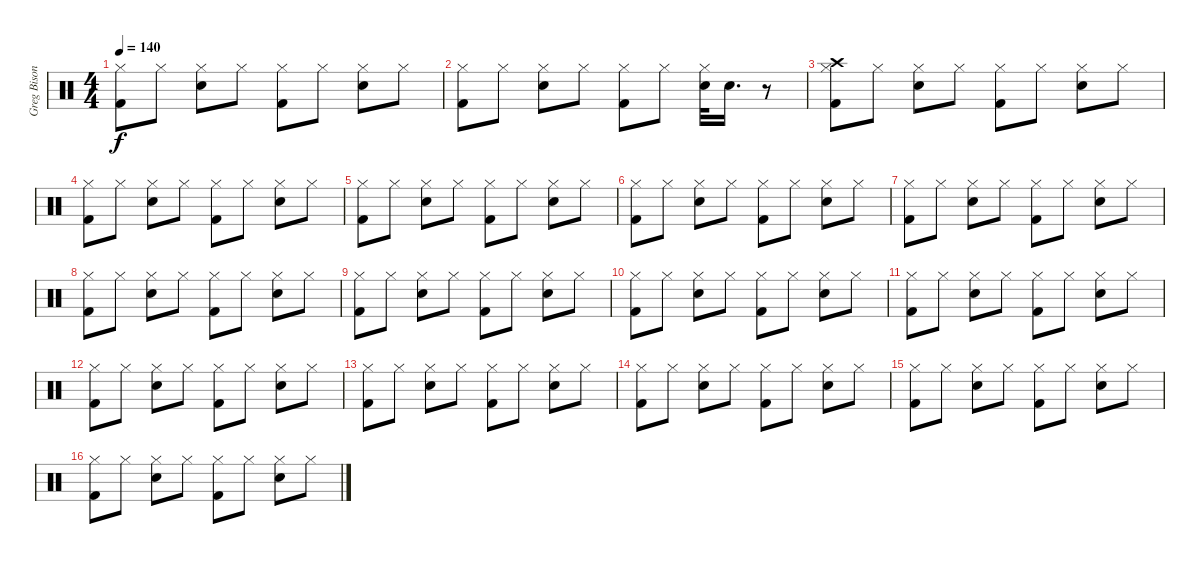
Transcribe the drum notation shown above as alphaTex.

\track ("Greg Bisonette" "Greg Bison") {instrument percussion}
\staff {score}
\articulation defaults
\ts (4 4)
\tempo 140
\clef neutral
\ks c
("Hi-Hat (closed)" "Kick (hit) 2").8{dy f} "Hi-Hat (closed)".8 ("Hi-Hat (closed)" "Electric Snare (hit)").8 "Hi-Hat (closed)".8 ("Hi-Hat (closed)" "Kick (hit) 2").8 "Hi-Hat (closed)".8 ("Hi-Hat (closed)" "Electric Snare (hit)").8 "Hi-Hat (closed)".8 |
("Hi-Hat (closed)" "Kick (hit) 2").8 "Hi-Hat (closed)".8 ("Hi-Hat (closed)" "Electric Snare (hit)").8 "Hi-Hat (closed)".8 ("Hi-Hat (closed)" "Kick (hit) 2").8 "Hi-Hat (closed)".8 ("Hi-Hat (closed)" "Electric Snare (hit)").32 "Electric Snare (hit)".16{d} r.8 |
("Hi-Hat (closed)" "Crash high (hit)" "Kick (hit) 2").8 "Hi-Hat (closed)".8 ("Hi-Hat (closed)" "Electric Snare (hit)").8 "Hi-Hat (closed)".8 ("Hi-Hat (closed)" "Kick (hit) 2").8 "Hi-Hat (closed)".8 ("Hi-Hat (closed)" "Electric Snare (hit)").8 "Hi-Hat (closed)".8 |
("Hi-Hat (closed)" "Kick (hit) 2").8 "Hi-Hat (closed)".8 ("Hi-Hat (closed)" "Electric Snare (hit)").8 "Hi-Hat (closed)".8 ("Hi-Hat (closed)" "Kick (hit) 2").8 "Hi-Hat (closed)".8 ("Hi-Hat (closed)" "Electric Snare (hit)").8 "Hi-Hat (closed)".8 |
("Hi-Hat (closed)" "Kick (hit) 2").8 "Hi-Hat (closed)".8 ("Hi-Hat (closed)" "Electric Snare (hit)").8 "Hi-Hat (closed)".8 ("Hi-Hat (closed)" "Kick (hit) 2").8 "Hi-Hat (closed)".8 ("Hi-Hat (closed)" "Electric Snare (hit)").8 "Hi-Hat (closed)".8 |
("Hi-Hat (closed)" "Kick (hit) 2").8 "Hi-Hat (closed)".8 ("Hi-Hat (closed)" "Electric Snare (hit)").8 "Hi-Hat (closed)".8 ("Hi-Hat (closed)" "Kick (hit) 2").8 "Hi-Hat (closed)".8 ("Hi-Hat (closed)" "Electric Snare (hit)").8 "Hi-Hat (closed)".8 |
("Hi-Hat (closed)" "Kick (hit) 2").8 "Hi-Hat (closed)".8 ("Hi-Hat (closed)" "Electric Snare (hit)").8 "Hi-Hat (closed)".8 ("Hi-Hat (closed)" "Kick (hit) 2").8 "Hi-Hat (closed)".8 ("Hi-Hat (closed)" "Electric Snare (hit)").8 "Hi-Hat (closed)".8 |
("Hi-Hat (closed)" "Kick (hit) 2").8 "Hi-Hat (closed)".8 ("Hi-Hat (closed)" "Electric Snare (hit)").8 "Hi-Hat (closed)".8 ("Hi-Hat (closed)" "Kick (hit) 2").8 "Hi-Hat (closed)".8 ("Hi-Hat (closed)" "Electric Snare (hit)").8 "Hi-Hat (closed)".8 |
("Hi-Hat (closed)" "Kick (hit) 2").8 "Hi-Hat (closed)".8 ("Hi-Hat (closed)" "Electric Snare (hit)").8 "Hi-Hat (closed)".8 ("Hi-Hat (closed)" "Kick (hit) 2").8 "Hi-Hat (closed)".8 ("Hi-Hat (closed)" "Electric Snare (hit)").8 "Hi-Hat (closed)".8 |
("Hi-Hat (closed)" "Kick (hit) 2").8 "Hi-Hat (closed)".8 ("Hi-Hat (closed)" "Electric Snare (hit)").8 "Hi-Hat (closed)".8 ("Hi-Hat (closed)" "Kick (hit) 2").8 "Hi-Hat (closed)".8 ("Hi-Hat (closed)" "Electric Snare (hit)").8 "Hi-Hat (closed)".8 |
("Hi-Hat (closed)" "Kick (hit) 2").8 "Hi-Hat (closed)".8 ("Hi-Hat (closed)" "Electric Snare (hit)").8 "Hi-Hat (closed)".8 ("Hi-Hat (closed)" "Kick (hit) 2").8 "Hi-Hat (closed)".8 ("Hi-Hat (closed)" "Electric Snare (hit)").8 "Hi-Hat (closed)".8 |
("Hi-Hat (closed)" "Kick (hit) 2").8 "Hi-Hat (closed)".8 ("Hi-Hat (closed)" "Electric Snare (hit)").8 "Hi-Hat (closed)".8 ("Hi-Hat (closed)" "Kick (hit) 2").8 "Hi-Hat (closed)".8 ("Hi-Hat (closed)" "Electric Snare (hit)").8 "Hi-Hat (closed)".8 |
("Hi-Hat (closed)" "Kick (hit) 2").8 "Hi-Hat (closed)".8 ("Hi-Hat (closed)" "Electric Snare (hit)").8 "Hi-Hat (closed)".8 ("Hi-Hat (closed)" "Kick (hit) 2").8 "Hi-Hat (closed)".8 ("Hi-Hat (closed)" "Electric Snare (hit)").8 "Hi-Hat (closed)".8 |
("Hi-Hat (closed)" "Kick (hit) 2").8 "Hi-Hat (closed)".8 ("Hi-Hat (closed)" "Electric Snare (hit)").8 "Hi-Hat (closed)".8 ("Hi-Hat (closed)" "Kick (hit) 2").8 "Hi-Hat (closed)".8 ("Hi-Hat (closed)" "Electric Snare (hit)").8 "Hi-Hat (closed)".8 |
("Hi-Hat (closed)" "Kick (hit) 2").8 "Hi-Hat (closed)".8 ("Hi-Hat (closed)" "Electric Snare (hit)").8 "Hi-Hat (closed)".8 ("Hi-Hat (closed)" "Kick (hit) 2").8 "Hi-Hat (closed)".8 ("Hi-Hat (closed)" "Electric Snare (hit)").8 "Hi-Hat (closed)".8 |
("Hi-Hat (closed)" "Kick (hit) 2").8 "Hi-Hat (closed)".8 ("Hi-Hat (closed)" "Electric Snare (hit)").8 "Hi-Hat (closed)".8 ("Hi-Hat (closed)" "Kick (hit) 2").8 "Hi-Hat (closed)".8 ("Hi-Hat (closed)" "Electric Snare (hit)").8 "Hi-Hat (closed)".8
